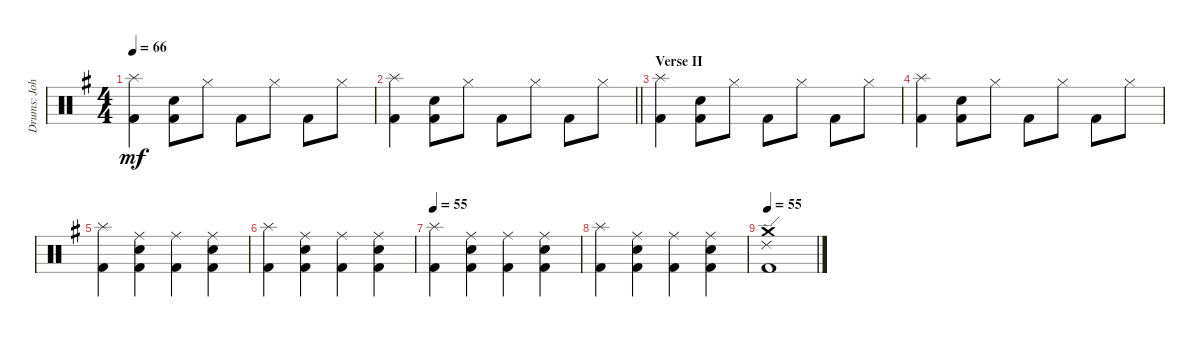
\track ("Drums: John" "Drums: Joh") {instrument percussion}
\staff {score}
\articulation defaults
\ts (4 4)
\tempo 66
\clef neutral
\ks g
("Splash (hit)" "Kick (hit) 2").4{dy mf} ("Electric Snare (hit)" "Kick (hit) 2").8 "Hi-Hat (closed)".8 "Kick (hit) 2".8 "Hi-Hat (closed)".8 "Kick (hit) 2".8 "Hi-Hat (closed)".8 |
\barLineRight lightlight
("Splash (hit)" "Kick (hit) 2").4 ("Electric Snare (hit)" "Kick (hit) 2").8 "Hi-Hat (closed)".8 "Kick (hit) 2".8 "Hi-Hat (closed)".8 "Kick (hit) 2".8 "Hi-Hat (closed)".8 |
\section ("" "Verse II")
("Splash (hit)" "Kick (hit) 2").4 ("Electric Snare (hit)" "Kick (hit) 2").8 "Hi-Hat (closed)".8 "Kick (hit) 2".8 "Hi-Hat (closed)".8 "Kick (hit) 2".8 "Hi-Hat (closed)".8 |
("Splash (hit)" "Kick (hit) 2").4 ("Electric Snare (hit)" "Kick (hit) 2").8 "Hi-Hat (closed)".8 "Kick (hit) 2".8 "Hi-Hat (closed)".8 "Kick (hit) 2".8 "Hi-Hat (closed)".8 |
("Splash (hit)" "Kick (hit) 2").4 ("Ride (middle)" "Electric Snare (hit)" "Kick (hit) 2").4 ("Ride (middle)" "Kick (hit) 2").4 ("Ride (middle)" "Electric Snare (hit)" "Kick (hit) 2").4 |
("Splash (hit)" "Kick (hit) 2").4 ("Ride (middle)" "Electric Snare (hit)" "Kick (hit) 2").4 ("Ride (middle)" "Kick (hit) 2").4 ("Ride (middle)" "Electric Snare (hit)" "Kick (hit) 2").4 |
\tempo 55
("Splash (hit)" "Kick (hit) 2").4 ("Ride (middle)" "Electric Snare (hit)" "Kick (hit) 2").4 ("Ride (middle)" "Kick (hit) 2").4 ("Ride (middle)" "Electric Snare (hit)" "Kick (hit) 2").4 |
("Splash (hit)" "Kick (hit) 2").4 ("Ride (middle)" "Electric Snare (hit)" "Kick (hit) 2").4 ("Ride (middle)" "Kick (hit) 2").4 ("Ride (middle)" "Electric Snare (hit)" "Kick (hit) 2").4 |
\tempo 55
("Ride (edge) 2" "Crash medium (hit)" "Kick (hit) 2").1
